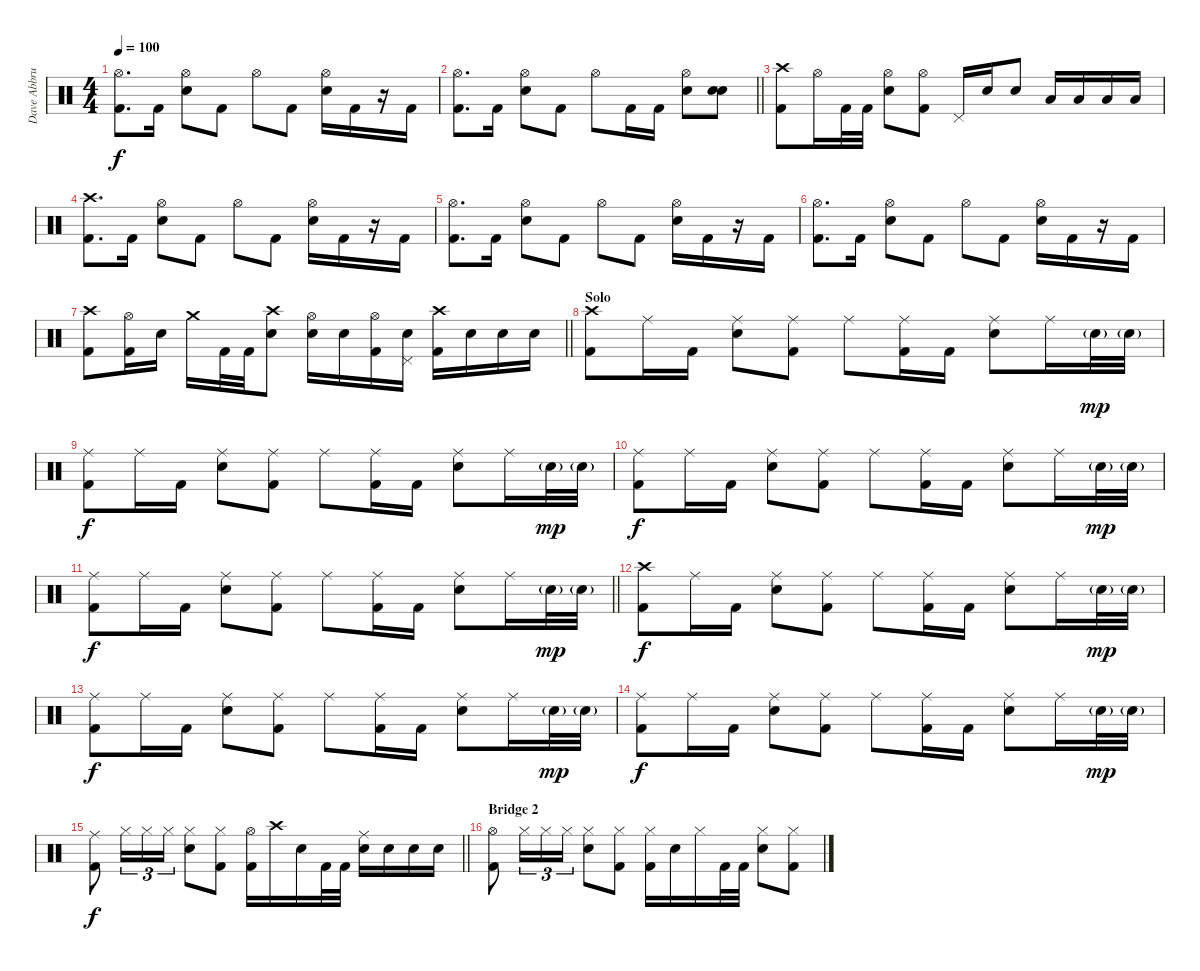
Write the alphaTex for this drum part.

\track ("Dave Abbruzzese" "Dave Abbru") {instrument percussion}
\staff {score}
\articulation defaults
\ts (4 4)
\tempo 100
\clef neutral
\ks c
("Hi-Hat (open)" "Kick (hit) 2").8{d dy f} "Kick (hit) 2".16 ("Hi-Hat (open)" "Electric Snare (hit)").8 "Kick (hit) 2".8 "Hi-Hat (open)".8 "Kick (hit) 2".8 ("Hi-Hat (open)" "Electric Snare (hit)").16 "Kick (hit) 2".16 r.16 "Kick (hit) 2".16 |
\barLineRight lightlight
("Hi-Hat (open)" "Kick (hit) 2").8{d} "Kick (hit) 2".16 ("Hi-Hat (open)" "Electric Snare (hit)").8 "Kick (hit) 2".8 "Hi-Hat (open)".8 "Kick (hit) 2".16 "Kick (hit) 2".16 ("Hi-Hat (open)" "Electric Snare (hit)").8 ("Electric Snare (hit)" "Electric Snare (hit)").8 |
("Crash high (hit)" "Kick (hit) 2").8 "Hi-Hat (open)".16 "Kick (hit) 2".32 "Kick (hit) 2".32 ("Hi-Hat (open)" "Electric Snare (hit)").8 ("Hi-Hat (open)" "Kick (hit) 2").8 "Pedal Hi-Hat (hit)".16 "Electric Snare (hit)".16 "Electric Snare (hit)".8 "Low Tom (hit)".16 "Low Tom (hit)".16 "Low Tom (hit)".16 "Low Tom (hit)".16 |
("Crash high (hit)" "Kick (hit) 2").8{d} "Kick (hit) 2".16 ("Hi-Hat (open)" "Electric Snare (hit)").8 "Kick (hit) 2".8 "Hi-Hat (open)".8 "Kick (hit) 2".8 ("Hi-Hat (open)" "Electric Snare (hit)").16 "Kick (hit) 2".16 r.16 "Kick (hit) 2".16 |
("Hi-Hat (open)" "Kick (hit) 2").8{d} "Kick (hit) 2".16 ("Hi-Hat (open)" "Electric Snare (hit)").8 "Kick (hit) 2".8 "Hi-Hat (open)".8 "Kick (hit) 2".8 ("Hi-Hat (open)" "Electric Snare (hit)").16 "Kick (hit) 2".16 r.16 "Kick (hit) 2".16 |
("Hi-Hat (open)" "Kick (hit) 2").8{d} "Kick (hit) 2".16 ("Hi-Hat (open)" "Electric Snare (hit)").8 "Kick (hit) 2".8 "Hi-Hat (open)".8 "Kick (hit) 2".8 ("Hi-Hat (open)" "Electric Snare (hit)").16 "Kick (hit) 2".16 r.16 "Kick (hit) 2".16 |
\barLineRight lightlight
("Crash high (hit)" "Kick (hit) 2").8 ("Hi-Hat (open)" "Kick (hit) 2").16 "Electric Snare (hit)".16 "Crash medium (hit)".16 "Kick (hit) 2".32 "Kick (hit) 2".32 ("Crash high (hit)" "Electric Snare (hit)").8 ("Hi-Hat (open)" "Electric Snare (hit)").16 "Electric Snare (hit)".16 ("Hi-Hat (open)" "Kick (hit) 2").16 ("Pedal Hi-Hat (hit)" "Electric Snare (hit)").16 ("Crash high (hit)" "Kick (hit) 2").16 "Electric Snare (hit)".16 "Electric Snare (hit)".16 "Electric Snare (hit)".16 |
\section ("" "Solo")
("Crash high (hit)" "Kick (hit) 2").8 "Ride (middle)".16 "Kick (hit) 2".16 ("Ride (middle)" "Electric Snare (hit)").8 ("Ride (middle)" "Kick (hit) 2").8 "Ride (middle)".8 ("Ride (middle)" "Kick (hit) 2").16 "Kick (hit) 2".16 ("Ride (middle)" "Electric Snare (hit)").8 "Ride (middle)".16 "Electric Snare (hit)"{g}.32{dy mp} "Electric Snare (hit)"{g}.32 |
("Ride (middle)" "Kick (hit) 2").8{dy f} "Ride (middle)".16 "Kick (hit) 2".16 ("Ride (middle)" "Electric Snare (hit)").8 ("Ride (middle)" "Kick (hit) 2").8 "Ride (middle)".8 ("Ride (middle)" "Kick (hit) 2").16 "Kick (hit) 2".16 ("Ride (middle)" "Electric Snare (hit)").8 "Ride (middle)".16 "Electric Snare (hit)"{g}.32{dy mp} "Electric Snare (hit)"{g}.32 |
("Ride (middle)" "Kick (hit) 2").8{dy f} "Ride (middle)".16 "Kick (hit) 2".16 ("Ride (middle)" "Electric Snare (hit)").8 ("Ride (middle)" "Kick (hit) 2").8 "Ride (middle)".8 ("Ride (middle)" "Kick (hit) 2").16 "Kick (hit) 2".16 ("Ride (middle)" "Electric Snare (hit)").8 "Ride (middle)".16 "Electric Snare (hit)"{g}.32{dy mp} "Electric Snare (hit)"{g}.32 |
\barLineRight lightlight
("Ride (middle)" "Kick (hit) 2").8{dy f} "Ride (middle)".16 "Kick (hit) 2".16 ("Ride (middle)" "Electric Snare (hit)").8 ("Ride (middle)" "Kick (hit) 2").8 "Ride (middle)".8 ("Ride (middle)" "Kick (hit) 2").16 "Kick (hit) 2".16 ("Ride (middle)" "Electric Snare (hit)").8 "Ride (middle)".16 "Electric Snare (hit)"{g}.32{dy mp} "Electric Snare (hit)"{g}.32 |
("Crash high (hit)" "Kick (hit) 2").8{dy f} "Ride (middle)".16 "Kick (hit) 2".16 ("Ride (middle)" "Electric Snare (hit)").8 ("Ride (middle)" "Kick (hit) 2").8 "Ride (middle)".8 ("Ride (middle)" "Kick (hit) 2").16 "Kick (hit) 2".16 ("Ride (middle)" "Electric Snare (hit)").8 "Ride (middle)".16 "Electric Snare (hit)"{g}.32{dy mp} "Electric Snare (hit)"{g}.32 |
("Ride (middle)" "Kick (hit) 2").8{dy f} "Ride (middle)".16 "Kick (hit) 2".16 ("Ride (middle)" "Electric Snare (hit)").8 ("Ride (middle)" "Kick (hit) 2").8 "Ride (middle)".8 ("Ride (middle)" "Kick (hit) 2").16 "Kick (hit) 2".16 ("Ride (middle)" "Electric Snare (hit)").8 "Ride (middle)".16 "Electric Snare (hit)"{g}.32{dy mp} "Electric Snare (hit)"{g}.32 |
("Ride (middle)" "Kick (hit) 2").8{dy f} "Ride (middle)".16 "Kick (hit) 2".16 ("Ride (middle)" "Electric Snare (hit)").8 ("Ride (middle)" "Kick (hit) 2").8 "Ride (middle)".8 ("Ride (middle)" "Kick (hit) 2").16 "Kick (hit) 2".16 ("Ride (middle)" "Electric Snare (hit)").8 "Ride (middle)".16 "Electric Snare (hit)"{g}.32{dy mp} "Electric Snare (hit)"{g}.32 |
\barLineRight lightlight
("Ride (middle)" "Kick (hit) 2").8{dy f} "Hi-Hat (closed)".16{tu (3 2)} "Hi-Hat (closed)".16{tu (3 2)} "Hi-Hat (closed)".16{tu (3 2)} ("Hi-Hat (closed)" "Electric Snare (hit)").8 ("Hi-Hat (closed)" "Kick (hit) 2").8 ("Hi-Hat (open)" "Kick (hit) 2").16 "Crash high (hit)".16 "Electric Snare (hit)".16 "Kick (hit) 2".32 "Kick (hit) 2".32 ("Ride (middle)" "Electric Snare (hit)").16 "Electric Snare (hit)".16 "Electric Snare (hit)".16 "Electric Snare (hit)".16 |
\section ("" "Bridge 2")
("Hi-Hat (open)" "Kick (hit) 2").8 "Hi-Hat (closed)".16{tu (3 2)} "Hi-Hat (closed)".16{tu (3 2)} "Hi-Hat (closed)".16{tu (3 2)} ("Hi-Hat (closed)" "Electric Snare (hit)").8 ("Hi-Hat (closed)" "Kick (hit) 2").8 ("Hi-Hat (closed)" "Kick (hit) 2").16 "Electric Snare (hit)".16 "Hi-Hat (closed)".16 "Kick (hit) 2".32 "Kick (hit) 2".32 ("Hi-Hat (closed)" "Electric Snare (hit)").8 ("Hi-Hat (closed)" "Kick (hit) 2").8
